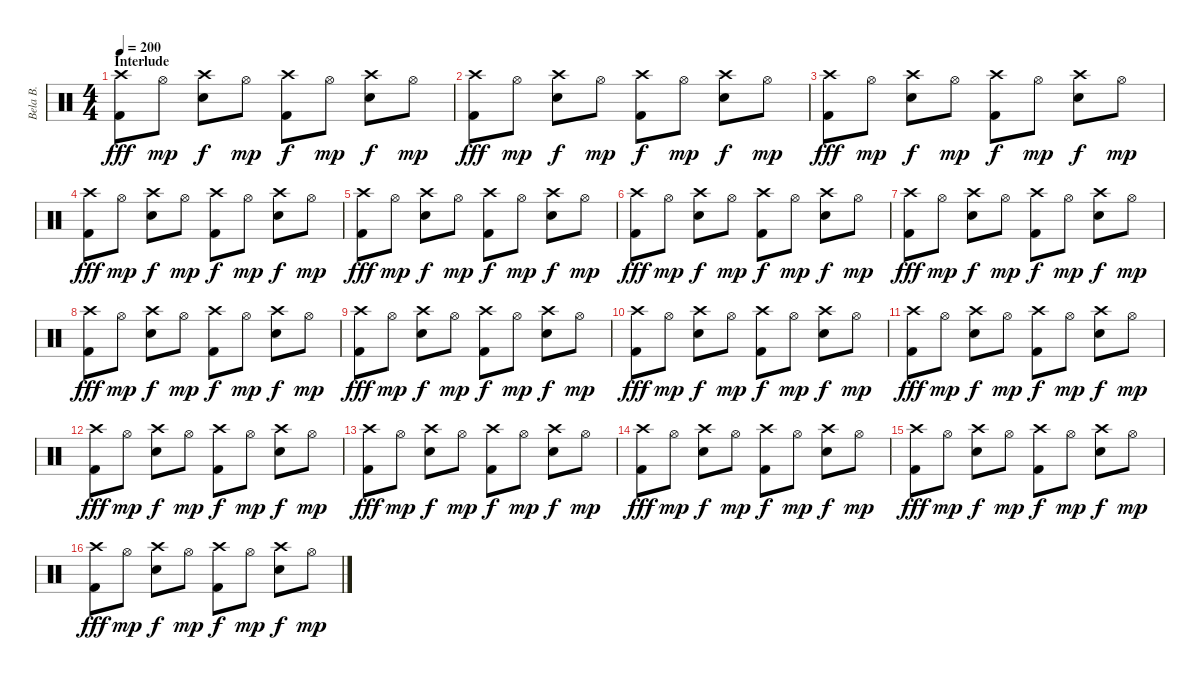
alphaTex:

\track ("Bela B. " "Bela B. ") {instrument percussion}
\staff {score}
\articulation defaults
\ts (4 4)
\section ("" "Interlude")
\tempo 200
\clef neutral
\ks c
("Crash high (hit)" "Kick (hit) 2").8{dy fff} "Hi-Hat (open)".8{dy mp} ("Crash high (hit)" "Snare (hit) 2").8{dy f} "Hi-Hat (open)".8{dy mp} ("Crash high (hit)" "Kick (hit) 2").8{dy f} "Hi-Hat (open)".8{dy mp} ("Crash high (hit)" "Snare (hit) 2").8{dy f} "Hi-Hat (open)".8{dy mp} |
("Crash high (hit)" "Kick (hit) 2").8{dy fff} "Hi-Hat (open)".8{dy mp} ("Crash high (hit)" "Snare (hit) 2").8{dy f} "Hi-Hat (open)".8{dy mp} ("Crash high (hit)" "Kick (hit) 2").8{dy f} "Hi-Hat (open)".8{dy mp} ("Crash high (hit)" "Snare (hit) 2").8{dy f} "Hi-Hat (open)".8{dy mp} |
("Crash high (hit)" "Kick (hit) 2").8{dy fff} "Hi-Hat (open)".8{dy mp} ("Crash high (hit)" "Snare (hit) 2").8{dy f} "Hi-Hat (open)".8{dy mp} ("Crash high (hit)" "Kick (hit) 2").8{dy f} "Hi-Hat (open)".8{dy mp} ("Crash high (hit)" "Snare (hit) 2").8{dy f} "Hi-Hat (open)".8{dy mp} |
("Crash high (hit)" "Kick (hit) 2").8{dy fff} "Hi-Hat (open)".8{dy mp} ("Crash high (hit)" "Snare (hit) 2").8{dy f} "Hi-Hat (open)".8{dy mp} ("Crash high (hit)" "Kick (hit) 2").8{dy f} "Hi-Hat (open)".8{dy mp} ("Crash high (hit)" "Snare (hit) 2").8{dy f} "Hi-Hat (open)".8{dy mp} |
("Crash high (hit)" "Kick (hit) 2").8{dy fff} "Hi-Hat (open)".8{dy mp} ("Crash high (hit)" "Snare (hit) 2").8{dy f} "Hi-Hat (open)".8{dy mp} ("Crash high (hit)" "Kick (hit) 2").8{dy f} "Hi-Hat (open)".8{dy mp} ("Crash high (hit)" "Snare (hit) 2").8{dy f} "Hi-Hat (open)".8{dy mp} |
("Crash high (hit)" "Kick (hit) 2").8{dy fff} "Hi-Hat (open)".8{dy mp} ("Crash high (hit)" "Snare (hit) 2").8{dy f} "Hi-Hat (open)".8{dy mp} ("Crash high (hit)" "Kick (hit) 2").8{dy f} "Hi-Hat (open)".8{dy mp} ("Crash high (hit)" "Snare (hit) 2").8{dy f} "Hi-Hat (open)".8{dy mp} |
("Crash high (hit)" "Kick (hit) 2").8{dy fff} "Hi-Hat (open)".8{dy mp} ("Crash high (hit)" "Snare (hit) 2").8{dy f} "Hi-Hat (open)".8{dy mp} ("Crash high (hit)" "Kick (hit) 2").8{dy f} "Hi-Hat (open)".8{dy mp} ("Crash high (hit)" "Snare (hit) 2").8{dy f} "Hi-Hat (open)".8{dy mp} |
("Crash high (hit)" "Kick (hit) 2").8{dy fff} "Hi-Hat (open)".8{dy mp} ("Crash high (hit)" "Snare (hit) 2").8{dy f} "Hi-Hat (open)".8{dy mp} ("Crash high (hit)" "Kick (hit) 2").8{dy f} "Hi-Hat (open)".8{dy mp} ("Crash high (hit)" "Snare (hit) 2").8{dy f} "Hi-Hat (open)".8{dy mp} |
("Crash high (hit)" "Kick (hit) 2").8{dy fff} "Hi-Hat (open)".8{dy mp} ("Crash high (hit)" "Snare (hit) 2").8{dy f} "Hi-Hat (open)".8{dy mp} ("Crash high (hit)" "Kick (hit) 2").8{dy f} "Hi-Hat (open)".8{dy mp} ("Crash high (hit)" "Snare (hit) 2").8{dy f} "Hi-Hat (open)".8{dy mp} |
("Crash high (hit)" "Kick (hit) 2").8{dy fff} "Hi-Hat (open)".8{dy mp} ("Crash high (hit)" "Snare (hit) 2").8{dy f} "Hi-Hat (open)".8{dy mp} ("Crash high (hit)" "Kick (hit) 2").8{dy f} "Hi-Hat (open)".8{dy mp} ("Crash high (hit)" "Snare (hit) 2").8{dy f} "Hi-Hat (open)".8{dy mp} |
("Crash high (hit)" "Kick (hit) 2").8{dy fff} "Hi-Hat (open)".8{dy mp} ("Crash high (hit)" "Snare (hit) 2").8{dy f} "Hi-Hat (open)".8{dy mp} ("Crash high (hit)" "Kick (hit) 2").8{dy f} "Hi-Hat (open)".8{dy mp} ("Crash high (hit)" "Snare (hit) 2").8{dy f} "Hi-Hat (open)".8{dy mp} |
("Crash high (hit)" "Kick (hit) 2").8{dy fff} "Hi-Hat (open)".8{dy mp} ("Crash high (hit)" "Snare (hit) 2").8{dy f} "Hi-Hat (open)".8{dy mp} ("Crash high (hit)" "Kick (hit) 2").8{dy f} "Hi-Hat (open)".8{dy mp} ("Crash high (hit)" "Snare (hit) 2").8{dy f} "Hi-Hat (open)".8{dy mp} |
("Crash high (hit)" "Kick (hit) 2").8{dy fff} "Hi-Hat (open)".8{dy mp} ("Crash high (hit)" "Snare (hit) 2").8{dy f} "Hi-Hat (open)".8{dy mp} ("Crash high (hit)" "Kick (hit) 2").8{dy f} "Hi-Hat (open)".8{dy mp} ("Crash high (hit)" "Snare (hit) 2").8{dy f} "Hi-Hat (open)".8{dy mp} |
("Crash high (hit)" "Kick (hit) 2").8{dy fff} "Hi-Hat (open)".8{dy mp} ("Crash high (hit)" "Snare (hit) 2").8{dy f} "Hi-Hat (open)".8{dy mp} ("Crash high (hit)" "Kick (hit) 2").8{dy f} "Hi-Hat (open)".8{dy mp} ("Crash high (hit)" "Snare (hit) 2").8{dy f} "Hi-Hat (open)".8{dy mp} |
("Crash high (hit)" "Kick (hit) 2").8{dy fff} "Hi-Hat (open)".8{dy mp} ("Crash high (hit)" "Snare (hit) 2").8{dy f} "Hi-Hat (open)".8{dy mp} ("Crash high (hit)" "Kick (hit) 2").8{dy f} "Hi-Hat (open)".8{dy mp} ("Crash high (hit)" "Snare (hit) 2").8{dy f} "Hi-Hat (open)".8{dy mp} |
("Crash high (hit)" "Kick (hit) 2").8{dy fff} "Hi-Hat (open)".8{dy mp} ("Crash high (hit)" "Snare (hit) 2").8{dy f} "Hi-Hat (open)".8{dy mp} ("Crash high (hit)" "Kick (hit) 2").8{dy f} "Hi-Hat (open)".8{dy mp} ("Crash high (hit)" "Snare (hit) 2").8{dy f} "Hi-Hat (open)".8{dy mp}
